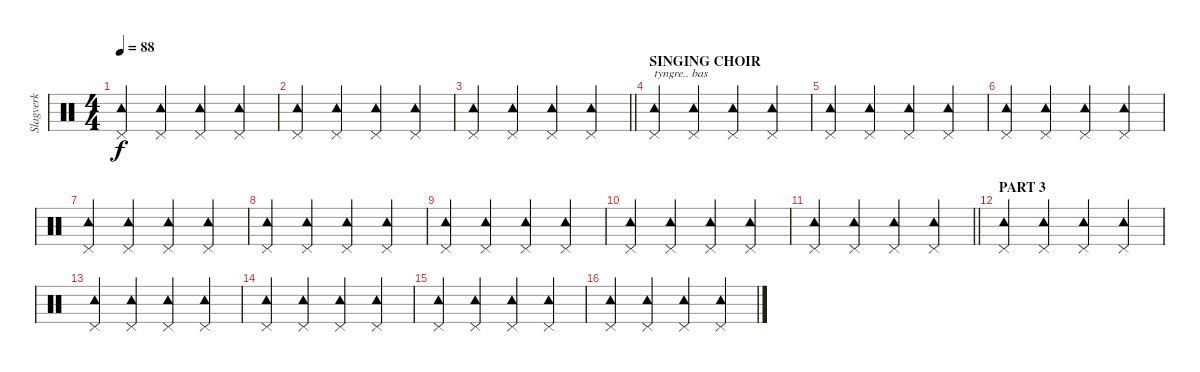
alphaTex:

\track ("Slagverk" "Slagverk") {instrument percussion}
\staff {score}
\articulation defaults
\ts (4 4)
\tempo 88
\clef neutral
\ks c
("Pedal Hi-Hat (hit)" "Tambourine (hit)").4{dy f} ("Pedal Hi-Hat (hit)" "Tambourine (hit)").4 ("Pedal Hi-Hat (hit)" "Tambourine (hit)").4 ("Pedal Hi-Hat (hit)" "Tambourine (hit)").4 |
("Pedal Hi-Hat (hit)" "Tambourine (hit)").4 ("Pedal Hi-Hat (hit)" "Tambourine (hit)").4 ("Pedal Hi-Hat (hit)" "Tambourine (hit)").4 ("Pedal Hi-Hat (hit)" "Tambourine (hit)").4 |
\barLineRight lightlight
("Pedal Hi-Hat (hit)" "Tambourine (hit)").4 ("Pedal Hi-Hat (hit)" "Tambourine (hit)").4 ("Pedal Hi-Hat (hit)" "Tambourine (hit)").4 ("Pedal Hi-Hat (hit)" "Tambourine (hit)").4 |
\section ("" "SINGING CHOIR")
("Pedal Hi-Hat (hit)" "Tambourine (hit)").4{txt "tyngre.. bas"} ("Pedal Hi-Hat (hit)" "Tambourine (hit)").4 ("Pedal Hi-Hat (hit)" "Tambourine (hit)").4 ("Pedal Hi-Hat (hit)" "Tambourine (hit)").4 |
("Pedal Hi-Hat (hit)" "Tambourine (hit)").4 ("Pedal Hi-Hat (hit)" "Tambourine (hit)").4 ("Pedal Hi-Hat (hit)" "Tambourine (hit)").4 ("Pedal Hi-Hat (hit)" "Tambourine (hit)").4 |
("Pedal Hi-Hat (hit)" "Tambourine (hit)").4 ("Pedal Hi-Hat (hit)" "Tambourine (hit)").4 ("Pedal Hi-Hat (hit)" "Tambourine (hit)").4 ("Pedal Hi-Hat (hit)" "Tambourine (hit)").4 |
("Pedal Hi-Hat (hit)" "Tambourine (hit)").4 ("Pedal Hi-Hat (hit)" "Tambourine (hit)").4 ("Pedal Hi-Hat (hit)" "Tambourine (hit)").4 ("Pedal Hi-Hat (hit)" "Tambourine (hit)").4 |
("Pedal Hi-Hat (hit)" "Tambourine (hit)").4 ("Pedal Hi-Hat (hit)" "Tambourine (hit)").4 ("Pedal Hi-Hat (hit)" "Tambourine (hit)").4 ("Pedal Hi-Hat (hit)" "Tambourine (hit)").4 |
("Pedal Hi-Hat (hit)" "Tambourine (hit)").4 ("Pedal Hi-Hat (hit)" "Tambourine (hit)").4 ("Pedal Hi-Hat (hit)" "Tambourine (hit)").4 ("Pedal Hi-Hat (hit)" "Tambourine (hit)").4 |
("Pedal Hi-Hat (hit)" "Tambourine (hit)").4 ("Pedal Hi-Hat (hit)" "Tambourine (hit)").4 ("Pedal Hi-Hat (hit)" "Tambourine (hit)").4 ("Pedal Hi-Hat (hit)" "Tambourine (hit)").4 |
\barLineRight lightlight
("Pedal Hi-Hat (hit)" "Tambourine (hit)").4 ("Pedal Hi-Hat (hit)" "Tambourine (hit)").4 ("Pedal Hi-Hat (hit)" "Tambourine (hit)").4 ("Pedal Hi-Hat (hit)" "Tambourine (hit)").4 |
\section ("" "PART 3")
("Pedal Hi-Hat (hit)" "Tambourine (hit)").4 ("Pedal Hi-Hat (hit)" "Tambourine (hit)").4 ("Pedal Hi-Hat (hit)" "Tambourine (hit)").4 ("Pedal Hi-Hat (hit)" "Tambourine (hit)").4 |
("Pedal Hi-Hat (hit)" "Tambourine (hit)").4 ("Pedal Hi-Hat (hit)" "Tambourine (hit)").4 ("Pedal Hi-Hat (hit)" "Tambourine (hit)").4 ("Pedal Hi-Hat (hit)" "Tambourine (hit)").4 |
("Pedal Hi-Hat (hit)" "Tambourine (hit)").4 ("Pedal Hi-Hat (hit)" "Tambourine (hit)").4 ("Pedal Hi-Hat (hit)" "Tambourine (hit)").4 ("Pedal Hi-Hat (hit)" "Tambourine (hit)").4 |
("Pedal Hi-Hat (hit)" "Tambourine (hit)").4 ("Pedal Hi-Hat (hit)" "Tambourine (hit)").4 ("Pedal Hi-Hat (hit)" "Tambourine (hit)").4 ("Pedal Hi-Hat (hit)" "Tambourine (hit)").4 |
("Pedal Hi-Hat (hit)" "Tambourine (hit)").4 ("Pedal Hi-Hat (hit)" "Tambourine (hit)").4 ("Pedal Hi-Hat (hit)" "Tambourine (hit)").4 ("Pedal Hi-Hat (hit)" "Tambourine (hit)").4
